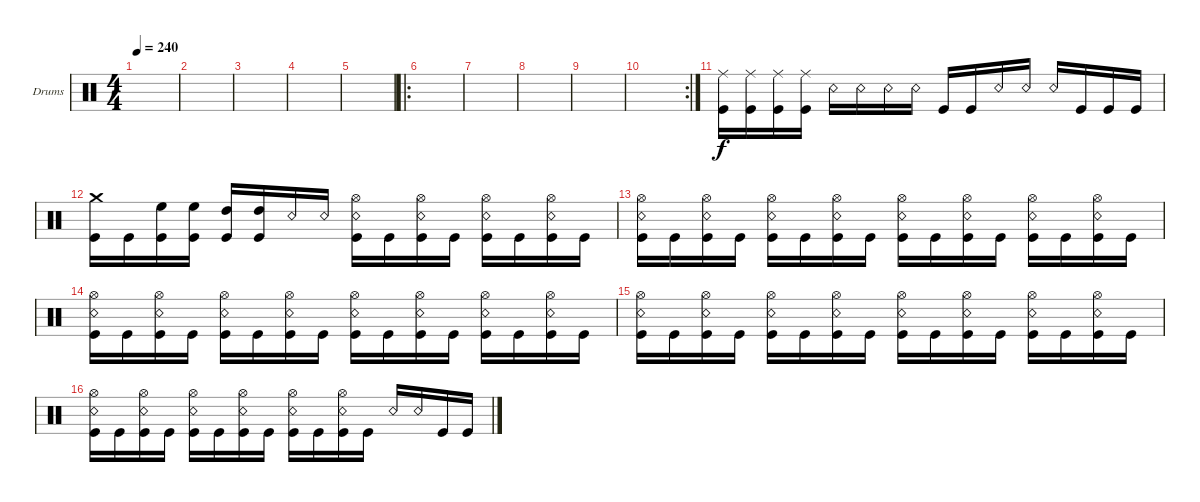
\bracketExtendMode groupsimilarinstruments
\firstSystemTrackNameOrientation horizontal
\otherSystemsTrackNameOrientation horizontal
\track ("Drumkit" "Drums") {instrument percussion}
\staff {score}
\articulation defaults
\ts (4 4)
\tempo 240
\clef neutral
\ks c
|
|
|
|
|
\ro
|
|
|
|
\rc 2
|
("Ride (middle)" "Kick (hit)").16 ("Ride (middle)" "Kick (hit)").16 ("Ride (middle)" "Kick (hit)").16 ("Ride (middle)" "Kick (hit)").16 "Snare (rim shot)".16 "Snare (rim shot)".16 "Snare (rim shot)".16 "Snare (rim shot)".16 "Kick (hit)".16 "Kick (hit)".16 "Snare (rim shot)".16 "Snare (rim shot)".16 "Snare (rim shot)".16 "Kick (hit)".16 "Kick (hit)".16 "Kick (hit)".16 |
("Crash medium (hit)" "Kick (hit)").16 "Kick (hit)".16 ("High Floor Tom (hit)" "Kick (hit)").16 ("High Floor Tom (hit)" "Kick (hit)").16 ("High Tom (hit)" "Kick (hit)").16 ("High Tom (hit)" "Kick (hit)").16 "Snare (rim shot)".16 "Snare (rim shot)".16 ("Snare (rim shot)" "Hi-Hat (open)" "Kick (hit)").16 "Kick (hit)".16 ("Snare (rim shot)" "Hi-Hat (open)" "Kick (hit)").16 "Kick (hit)".16 ("Snare (rim shot)" "Hi-Hat (open)" "Kick (hit)").16 "Kick (hit)".16 ("Snare (rim shot)" "Hi-Hat (open)" "Kick (hit)").16 "Kick (hit)".16 |
("Snare (rim shot)" "Hi-Hat (open)" "Kick (hit)").16 "Kick (hit)".16 ("Snare (rim shot)" "Hi-Hat (open)" "Kick (hit)").16 "Kick (hit)".16 ("Snare (rim shot)" "Hi-Hat (open)" "Kick (hit)").16 "Kick (hit)".16 ("Snare (rim shot)" "Hi-Hat (open)" "Kick (hit)").16 "Kick (hit)".16 ("Snare (rim shot)" "Hi-Hat (open)" "Kick (hit)").16 "Kick (hit)".16 ("Snare (rim shot)" "Hi-Hat (open)" "Kick (hit)").16 "Kick (hit)".16 ("Snare (rim shot)" "Hi-Hat (open)" "Kick (hit)").16 "Kick (hit)".16 ("Snare (rim shot)" "Hi-Hat (open)" "Kick (hit)").16 "Kick (hit)".16 |
("Snare (rim shot)" "Hi-Hat (open)" "Kick (hit)").16 "Kick (hit)".16 ("Snare (rim shot)" "Hi-Hat (open)" "Kick (hit)").16 "Kick (hit)".16 ("Snare (rim shot)" "Hi-Hat (open)" "Kick (hit)").16 "Kick (hit)".16 ("Snare (rim shot)" "Hi-Hat (open)" "Kick (hit)").16 "Kick (hit)".16 ("Snare (rim shot)" "Hi-Hat (open)" "Kick (hit)").16 "Kick (hit)".16 ("Snare (rim shot)" "Hi-Hat (open)" "Kick (hit)").16 "Kick (hit)".16 ("Snare (rim shot)" "Hi-Hat (open)" "Kick (hit)").16 "Kick (hit)".16 ("Snare (rim shot)" "Hi-Hat (open)" "Kick (hit)").16 "Kick (hit)".16 |
("Snare (rim shot)" "Hi-Hat (open)" "Kick (hit)").16 "Kick (hit)".16 ("Snare (rim shot)" "Hi-Hat (open)" "Kick (hit)").16 "Kick (hit)".16 ("Snare (rim shot)" "Hi-Hat (open)" "Kick (hit)").16 "Kick (hit)".16 ("Snare (rim shot)" "Hi-Hat (open)" "Kick (hit)").16 "Kick (hit)".16 ("Snare (rim shot)" "Hi-Hat (open)" "Kick (hit)").16 "Kick (hit)".16 ("Snare (rim shot)" "Hi-Hat (open)" "Kick (hit)").16 "Kick (hit)".16 ("Snare (rim shot)" "Hi-Hat (open)" "Kick (hit)").16 "Kick (hit)".16 ("Snare (rim shot)" "Hi-Hat (open)" "Kick (hit)").16 "Kick (hit)".16 |
("Snare (rim shot)" "Hi-Hat (open)" "Kick (hit)").16 "Kick (hit)".16 ("Snare (rim shot)" "Hi-Hat (open)" "Kick (hit)").16 "Kick (hit)".16 ("Snare (rim shot)" "Hi-Hat (open)" "Kick (hit)").16 "Kick (hit)".16 ("Snare (rim shot)" "Hi-Hat (open)" "Kick (hit)").16 "Kick (hit)".16 ("Snare (rim shot)" "Hi-Hat (open)" "Kick (hit)").16 "Kick (hit)".16 ("Snare (rim shot)" "Hi-Hat (open)" "Kick (hit)").16 "Kick (hit)".16 "Snare (rim shot)".16 "Snare (rim shot)".16 "Kick (hit)".16 "Kick (hit)".16
